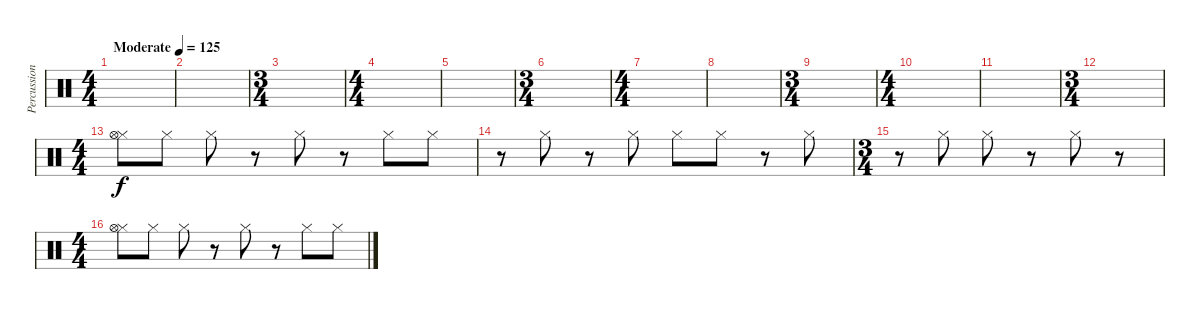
\track ("Percussion" "Percussion") {instrument percussion}
\staff {score}
\articulation defaults
\ts (4 4)
\tempo (125 "Moderate")
\clef neutral
\ks c
|
|
\ts (3 4)
|
\ts (4 4)
|
|
\ts (3 4)
|
\ts (4 4)
|
|
\ts (3 4)
|
\ts (4 4)
|
|
\ts (3 4)
|
\ts (4 4)
("Hi-Hat (closed)" "Hi-Hat (open)").8 "Hi-Hat (closed)".8 "Hi-Hat (closed)".8 r.8 "Hi-Hat (closed)".8 r.8 "Hi-Hat (closed)".8 "Hi-Hat (closed)".8 |
r.8 "Hi-Hat (closed)".8 r.8 "Hi-Hat (closed)".8 "Hi-Hat (closed)".8 "Hi-Hat (closed)".8 r.8 "Hi-Hat (closed)".8 |
\ts (3 4)
r.8 "Hi-Hat (closed)".8 "Hi-Hat (closed)".8 r.8 "Hi-Hat (closed)".8 r.8 |
\ts (4 4)
("Hi-Hat (closed)" "Hi-Hat (open)").8 "Hi-Hat (closed)".8 "Hi-Hat (closed)".8 r.8 "Hi-Hat (closed)".8 r.8 "Hi-Hat (closed)".8 "Hi-Hat (closed)".8
